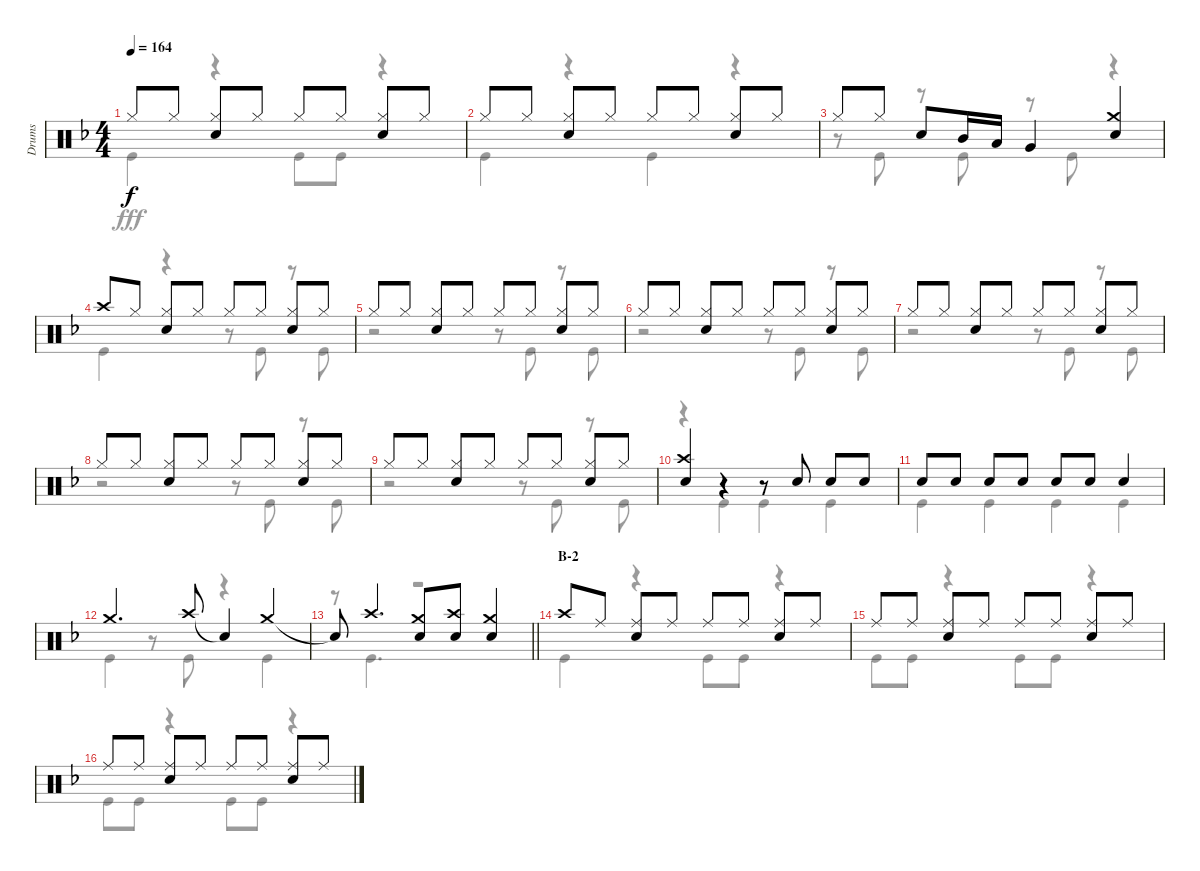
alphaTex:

\track ("Drums" "Drums") {instrument percussion}
\staff {score}
\articulation defaults
\voice
\ts (4 4)
\tempo 164
\clef neutral
\ks f "Hi-Hat (closed)".8{dy f} "Hi-Hat (closed)".8
("Hi-Hat (closed)" "Snare (hit) 2").8 "Hi-Hat (closed)".8 "Hi-Hat (closed)".8 "Hi-Hat (closed)".8 ("Hi-Hat (closed)" "Snare (hit) 2").8 "Hi-Hat (closed)".8 |
"Hi-Hat (closed)".8 "Hi-Hat (closed)".8 ("Hi-Hat (closed)" "Snare (hit) 2").8 "Hi-Hat (closed)".8 "Hi-Hat (closed)".8 "Hi-Hat (closed)".8 ("Hi-Hat (closed)" "Snare (hit) 2").8 "Hi-Hat (closed)".8 |
"Hi-Hat (closed)".8 "Hi-Hat (closed)".8 "Snare (hit) 2".8 "Mid Tom (hit)".16 "Low Tom (hit)".16 "Very Low Tom (hit)".4 ("Crash medium (hit)" "Snare (hit) 2").4 |
"Crash high (hit)".8 "Hi-Hat (closed)".8 ("Hi-Hat (closed)" "Snare (hit) 2").8 "Hi-Hat (closed)".8 "Hi-Hat (closed)".8 "Hi-Hat (closed)".8 ("Hi-Hat (closed)" "Snare (hit) 2").8 "Hi-Hat (closed)".8 |
"Hi-Hat (closed)".8 "Hi-Hat (closed)".8 ("Hi-Hat (closed)" "Snare (hit) 2").8 "Hi-Hat (closed)".8 "Hi-Hat (closed)".8 "Hi-Hat (closed)".8 ("Hi-Hat (closed)" "Snare (hit) 2").8 "Hi-Hat (closed)".8 |
"Hi-Hat (closed)".8 "Hi-Hat (closed)".8 ("Hi-Hat (closed)" "Snare (hit) 2").8 "Hi-Hat (closed)".8 "Hi-Hat (closed)".8 "Hi-Hat (closed)".8 ("Hi-Hat (closed)" "Snare (hit) 2").8 "Hi-Hat (closed)".8 |
"Hi-Hat (closed)".8 "Hi-Hat (closed)".8 ("Hi-Hat (closed)" "Snare (hit) 2").8 "Hi-Hat (closed)".8 "Hi-Hat (closed)".8 "Hi-Hat (closed)".8 ("Hi-Hat (closed)" "Snare (hit) 2").8 "Hi-Hat (closed)".8 |
"Hi-Hat (closed)".8 "Hi-Hat (closed)".8 ("Hi-Hat (closed)" "Snare (hit) 2").8 "Hi-Hat (closed)".8 "Hi-Hat (closed)".8 "Hi-Hat (closed)".8 ("Hi-Hat (closed)" "Snare (hit) 2").8 "Hi-Hat (closed)".8 |
"Hi-Hat (closed)".8 "Hi-Hat (closed)".8 ("Hi-Hat (closed)" "Snare (hit) 2").8 "Hi-Hat (closed)".8 "Hi-Hat (closed)".8 "Hi-Hat (closed)".8 ("Hi-Hat (closed)" "Snare (hit) 2").8 "Hi-Hat (closed)".8 |
("Crash high (hit)" "Snare (hit) 2").4 r.4 r.8 "Snare (hit) 2".8 "Snare (hit) 2".8 "Snare (hit) 2".8 |
"Snare (hit) 2".8 "Snare (hit) 2".8 "Snare (hit) 2".8 "Snare (hit) 2".8 "Snare (hit) 2".8 "Snare (hit) 2".8 "Snare (hit) 2".4 |
"Crash medium (hit)".4{d} "Crash high (hit)".8 "Snare (hit)"{t}.4 "Crash medium (hit)".4 |
\barLineRight lightlight "Snare (hit)"{t}.8 "Crash high (hit)".4{d}
("Crash medium (hit)" "Snare (hit) 2").8 ("Crash high (hit)" "Snare (hit) 2").8 ("Crash medium (hit)" "Snare (hit) 2").4 |
\section ("" "B-2")
"Crash high (hit)".8 "Ride (middle)".8 ("Ride (middle)" "Snare (hit) 2").8 "Ride (middle)".8 "Ride (middle)".8 "Ride (middle)".8 ("Ride (middle)" "Snare (hit) 2").8 "Ride (middle)".8 |
"Ride (middle)".8 "Ride (middle)".8 ("Ride (middle)" "Snare (hit) 2").8 "Ride (middle)".8 "Ride (middle)".8 "Ride (middle)".8 ("Ride (middle)" "Snare (hit) 2").8 "Ride (middle)".8 |
"Ride (middle)".8 "Ride (middle)".8 ("Ride (middle)" "Snare (hit) 2").8 "Ride (middle)".8 "Ride (middle)".8 "Ride (middle)".8 ("Ride (middle)" "Snare (hit) 2").8 "Ride (middle)".8
\voice
\clef neutral
\ottava regular
\simile none
\ks f "Kick (hit)".4{dy fff}
r.4 "Kick (hit)".8 "Kick (hit)".8 r.4 |
"Kick (hit)".4 r.4 "Kick (hit)".4 r.4 |
r.8 "Kick (hit)".8 r.8 "Kick (hit)".8 r.8 "Kick (hit)".8 r.4 |
"Kick (hit)".4 r.4 r.8 "Kick (hit)".8 r.8 "Kick (hit)".8 |
r.2 r.8 "Kick (hit)".8 r.8 "Kick (hit)".8 |
r.2 r.8 "Kick (hit)".8 r.8 "Kick (hit)".8 |
r.2 r.8 "Kick (hit)".8 r.8 "Kick (hit)".8 |
r.2 r.8 "Kick (hit)".8 r.8 "Kick (hit)".8 |
r.2 r.8 "Kick (hit)".8 r.8 "Kick (hit)".8 |
r.4 "Kick (hit)".4 "Kick (hit)".4 "Kick (hit)".4 |
"Kick (hit)".4 "Kick (hit)".4 "Kick (hit)".4 "Kick (hit)".4 |
"Kick (hit)".4 r.8 "Kick (hit)".8 r.4 "Kick (hit)".4 |
\barLineRight lightlight
r.8 "Kick (hit)".4{d} r.2 |
"Kick (hit)".4 r.4 "Kick (hit)".8 "Kick (hit)".8 r.4 |
"Kick (hit)".8 "Kick (hit)".8 r.4 "Kick (hit)".8 "Kick (hit)".8 r.4 |
"Kick (hit)".8 "Kick (hit)".8 r.4 "Kick (hit)".8 "Kick (hit)".8 r.4
